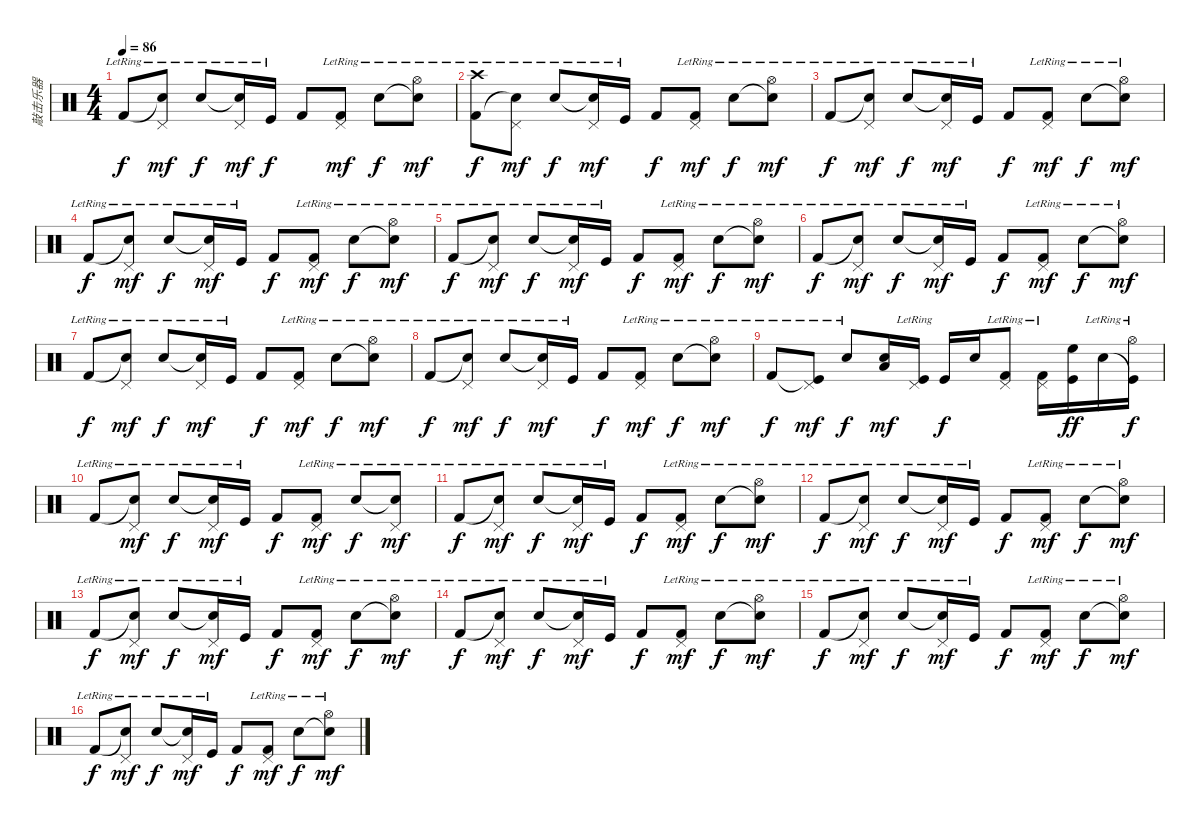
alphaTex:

\track ("敲击乐器" "敲击乐器") {instrument percussion}
\staff {score}
\articulation defaults
\ts (4 4)
\tempo 86
\clef neutral
\ks c "Kick (hit) 2"{lr}.8{dy f}
("Snare (hit)"{t} "Pedal Hi-Hat (hit)"{lr}).8{dy mf} "Electric Snare (hit)"{lr}.8{dy f} ("Snare (hit)"{t} "Pedal Hi-Hat (hit)"{lr}).16{dy mf} "Kick (hit)"{lr}.16{dy f} "Kick (hit) 2".8 ("Kick (hit) 2"{lr} "Pedal Hi-Hat (hit)"{lr}).8{dy mf} "Electric Snare (hit)"{lr}.8{dy f} ("Snare (hit)"{t} "Hi-Hat (open)"{lr}).8{dy mf} |
("Kick (hit) 2"{lr} "Crash high (hit)"{lr}).8{dy f} ("Snare (hit)"{t} "Pedal Hi-Hat (hit)"{lr}).8{dy mf} "Electric Snare (hit)"{lr}.8{dy f} ("Snare (hit)"{t} "Pedal Hi-Hat (hit)"{lr}).16{dy mf} "Kick (hit)"{lr}.16 "Kick (hit) 2".8{dy f} ("Kick (hit) 2"{lr} "Pedal Hi-Hat (hit)"{lr}).8{dy mf} "Electric Snare (hit)"{lr}.8{dy f} ("Snare (hit)"{t} "Hi-Hat (open)"{lr}).8{dy mf} |
"Kick (hit) 2"{lr}.8{dy f} ("Snare (hit)"{t} "Pedal Hi-Hat (hit)"{lr}).8{dy mf} "Electric Snare (hit)"{lr}.8{dy f} ("Snare (hit)"{t} "Pedal Hi-Hat (hit)"{lr}).16{dy mf} "Kick (hit)"{lr}.16 "Kick (hit) 2".8{dy f} ("Kick (hit) 2"{lr} "Pedal Hi-Hat (hit)"{lr}).8{dy mf} "Electric Snare (hit)"{lr}.8{dy f} ("Snare (hit)"{t} "Hi-Hat (open)"{lr}).8{dy mf} |
"Kick (hit) 2"{lr}.8{dy f} ("Snare (hit)"{t} "Pedal Hi-Hat (hit)"{lr}).8{dy mf} "Electric Snare (hit)"{lr}.8{dy f} ("Snare (hit)"{t} "Pedal Hi-Hat (hit)"{lr}).16{dy mf} "Kick (hit)"{lr}.16 "Kick (hit) 2".8{dy f} ("Kick (hit) 2"{lr} "Pedal Hi-Hat (hit)"{lr}).8{dy mf} "Electric Snare (hit)"{lr}.8{dy f} ("Snare (hit)"{t} "Hi-Hat (open)"{lr}).8{dy mf} |
"Kick (hit) 2"{lr}.8{dy f} ("Snare (hit)"{t} "Pedal Hi-Hat (hit)"{lr}).8{dy mf} "Electric Snare (hit)"{lr}.8{dy f} ("Snare (hit)"{t} "Pedal Hi-Hat (hit)"{lr}).16{dy mf} "Kick (hit)"{lr}.16 "Kick (hit) 2".8{dy f} ("Kick (hit) 2"{lr} "Pedal Hi-Hat (hit)"{lr}).8{dy mf} "Electric Snare (hit)"{lr}.8{dy f} ("Snare (hit)"{t} "Hi-Hat (open)"{lr}).8{dy mf} |
"Kick (hit) 2"{lr}.8{dy f} ("Snare (hit)"{t} "Pedal Hi-Hat (hit)"{lr}).8{dy mf} "Electric Snare (hit)"{lr}.8{dy f} ("Snare (hit)"{t} "Pedal Hi-Hat (hit)"{lr}).16{dy mf} "Kick (hit)"{lr}.16 "Kick (hit) 2".8{dy f} ("Kick (hit) 2"{lr} "Pedal Hi-Hat (hit)"{lr}).8{dy mf} "Electric Snare (hit)"{lr}.8{dy f} ("Snare (hit)"{t} "Hi-Hat (open)"{lr}).8{dy mf} |
"Kick (hit) 2"{lr}.8{dy f} ("Snare (hit)"{t} "Pedal Hi-Hat (hit)"{lr}).8{dy mf} "Electric Snare (hit)"{lr}.8{dy f} ("Snare (hit)"{t} "Pedal Hi-Hat (hit)"{lr}).16{dy mf} "Kick (hit)"{lr}.16 "Kick (hit) 2".8{dy f} ("Kick (hit) 2"{lr} "Pedal Hi-Hat (hit)"{lr}).8{dy mf} "Electric Snare (hit)"{lr}.8{dy f} ("Snare (hit)"{t} "Hi-Hat (open)"{lr}).8{dy mf} |
"Kick (hit) 2"{lr}.8{dy f} ("Snare (hit)"{t} "Pedal Hi-Hat (hit)"{lr}).8{dy mf} "Electric Snare (hit)"{lr}.8{dy f} ("Snare (hit)"{t} "Pedal Hi-Hat (hit)"{lr}).16{dy mf} "Kick (hit)"{lr}.16 "Kick (hit) 2".8{dy f} ("Kick (hit) 2"{lr} "Pedal Hi-Hat (hit)"{lr}).8{dy mf} "Electric Snare (hit)"{lr}.8{dy f} ("Snare (hit)"{t} "Hi-Hat (open)"{lr}).8{dy mf} |
"Kick (hit) 2"{lr}.8{dy f} ("Kick (hit)"{t} "Pedal Hi-Hat (hit)"{lr}).8{dy mf} "Electric Snare (hit)"{lr}.8{dy f} ("Electric Snare (hit)" "Low Tom (hit)").16{dy mf} ("Kick (hit)" "Pedal Hi-Hat (hit)"{lr}).16 "Kick (hit)".16{dy f} "Electric Snare (hit)".16 ("Kick (hit) 2" "Pedal Hi-Hat (hit)"{lr}).8 ("Kick (hit) 2" "Pedal Hi-Hat (hit)"{lr}).16 ("High Floor Tom (hit)" "Kick (hit)").16{dy ff} "Electric Snare (hit)"{lr}.16 ("Kick (hit)"{t} "Hi-Hat (open)"{lr}).16{dy f} |
"Kick (hit) 2"{lr}.8 ("Snare (hit)"{t} "Pedal Hi-Hat (hit)"{lr}).8{dy mf} "Electric Snare (hit)"{lr}.8{dy f} ("Snare (hit)"{t} "Pedal Hi-Hat (hit)"{lr}).16{dy mf} "Kick (hit)"{lr}.16 "Kick (hit) 2".8{dy f} ("Kick (hit) 2"{lr} "Pedal Hi-Hat (hit)"{lr}).8{dy mf} "Electric Snare (hit)"{lr}.8{dy f} ("Snare (hit)"{t} "Pedal Hi-Hat (hit)"{lr}).8{dy mf} |
"Kick (hit) 2"{lr}.8{dy f} ("Snare (hit)"{t} "Pedal Hi-Hat (hit)"{lr}).8{dy mf} "Electric Snare (hit)"{lr}.8{dy f} ("Snare (hit)"{t} "Pedal Hi-Hat (hit)"{lr}).16{dy mf} "Kick (hit)"{lr}.16 "Kick (hit) 2".8{dy f} ("Kick (hit) 2"{lr} "Pedal Hi-Hat (hit)"{lr}).8{dy mf} "Electric Snare (hit)"{lr}.8{dy f} ("Snare (hit)"{t} "Hi-Hat (open)"{lr}).8{dy mf} |
"Kick (hit) 2"{lr}.8{dy f} ("Snare (hit)"{t} "Pedal Hi-Hat (hit)"{lr}).8{dy mf} "Electric Snare (hit)"{lr}.8{dy f} ("Snare (hit)"{t} "Pedal Hi-Hat (hit)"{lr}).16{dy mf} "Kick (hit)"{lr}.16 "Kick (hit) 2".8{dy f} ("Kick (hit) 2"{lr} "Pedal Hi-Hat (hit)"{lr}).8{dy mf} "Electric Snare (hit)"{lr}.8{dy f} ("Snare (hit)"{t} "Hi-Hat (open)"{lr}).8{dy mf} |
"Kick (hit) 2"{lr}.8{dy f} ("Snare (hit)"{t} "Pedal Hi-Hat (hit)"{lr}).8{dy mf} "Electric Snare (hit)"{lr}.8{dy f} ("Snare (hit)"{t} "Pedal Hi-Hat (hit)"{lr}).16{dy mf} "Kick (hit)"{lr}.16 "Kick (hit) 2".8{dy f} ("Kick (hit) 2"{lr} "Pedal Hi-Hat (hit)"{lr}).8{dy mf} "Electric Snare (hit)"{lr}.8{dy f} ("Snare (hit)"{t} "Hi-Hat (open)"{lr}).8{dy mf} |
"Kick (hit) 2"{lr}.8{dy f} ("Snare (hit)"{t} "Pedal Hi-Hat (hit)"{lr}).8{dy mf} "Electric Snare (hit)"{lr}.8{dy f} ("Snare (hit)"{t} "Pedal Hi-Hat (hit)"{lr}).16{dy mf} "Kick (hit)"{lr}.16 "Kick (hit) 2".8{dy f} ("Kick (hit) 2"{lr} "Pedal Hi-Hat (hit)"{lr}).8{dy mf} "Electric Snare (hit)"{lr}.8{dy f} ("Snare (hit)"{t} "Hi-Hat (open)"{lr}).8{dy mf} |
"Kick (hit) 2"{lr}.8{dy f} ("Snare (hit)"{t} "Pedal Hi-Hat (hit)"{lr}).8{dy mf} "Electric Snare (hit)"{lr}.8{dy f} ("Snare (hit)"{t} "Pedal Hi-Hat (hit)"{lr}).16{dy mf} "Kick (hit)"{lr}.16 "Kick (hit) 2".8{dy f} ("Kick (hit) 2"{lr} "Pedal Hi-Hat (hit)"{lr}).8{dy mf} "Electric Snare (hit)"{lr}.8{dy f} ("Snare (hit)"{t} "Hi-Hat (open)"{lr}).8{dy mf} |
"Kick (hit) 2"{lr}.8{dy f} ("Snare (hit)"{t} "Pedal Hi-Hat (hit)"{lr}).8{dy mf} "Electric Snare (hit)"{lr}.8{dy f} ("Snare (hit)"{t} "Pedal Hi-Hat (hit)"{lr}).16{dy mf} "Kick (hit)"{lr}.16 "Kick (hit) 2".8{dy f} ("Kick (hit) 2"{lr} "Pedal Hi-Hat (hit)"{lr}).8{dy mf} "Electric Snare (hit)"{lr}.8{dy f} ("Snare (hit)"{t} "Hi-Hat (open)"{lr}).8{dy mf}
